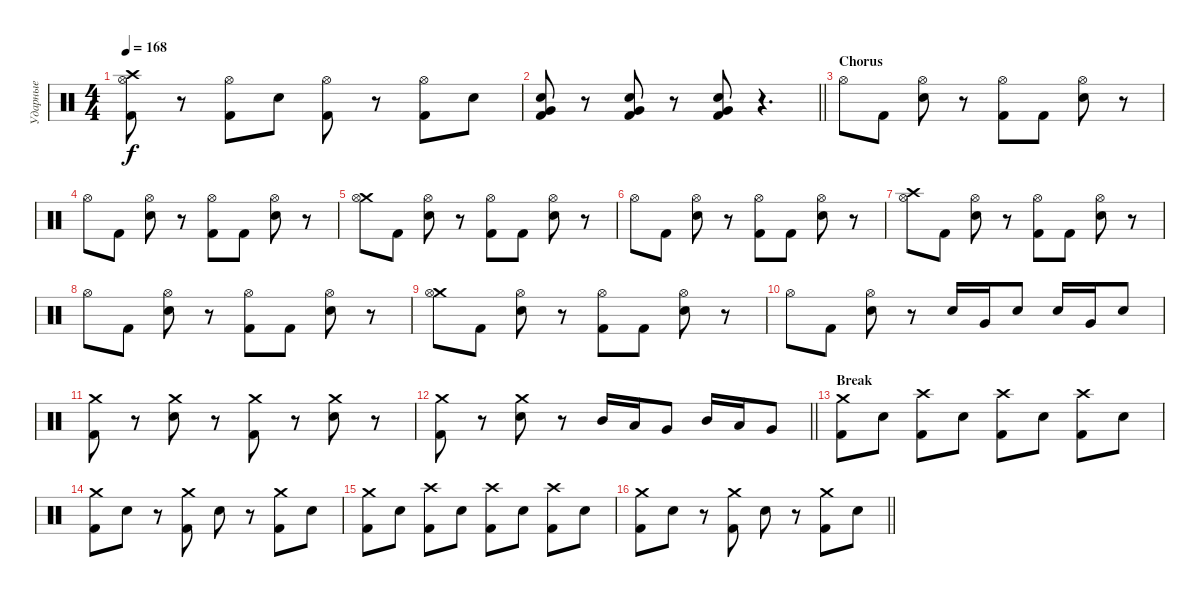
\track ("Ударные" "Ударные") {instrument percussion}
\staff {score}
\articulation defaults
\ts (4 4)
\tempo 168
\clef neutral
\ks c
("Crash high (hit)" "Hi-Hat (open)" "Kick (hit) 2").8{dy f} r.8 ("Hi-Hat (open)" "Kick (hit) 2").8 "Snare (hit) 2".8 ("Hi-Hat (open)" "Kick (hit) 2").8 r.8 ("Hi-Hat (open)" "Kick (hit) 2").8 "Snare (hit) 2".8 |
\barLineRight lightlight
("Very Low Tom (hit)" "Snare (hit) 2" "Kick (hit) 2").8 r.8 ("Very Low Tom (hit)" "Snare (hit) 2" "Kick (hit) 2").8 r.8 ("Very Low Tom (hit)" "Snare (hit) 2" "Kick (hit) 2").8 r.4{d} |
\section ("" "Chorus")
"Hi-Hat (open)".8 "Kick (hit) 2".8 ("Hi-Hat (open)" "Snare (hit) 2").8 r.8 ("Hi-Hat (open)" "Kick (hit) 2").8 "Kick (hit) 2".8 ("Hi-Hat (open)" "Snare (hit) 2").8 r.8 |
"Hi-Hat (open)".8 "Kick (hit) 2".8 ("Hi-Hat (open)" "Snare (hit) 2").8 r.8 ("Hi-Hat (open)" "Kick (hit) 2").8 "Kick (hit) 2".8 ("Hi-Hat (open)" "Snare (hit) 2").8 r.8 |
("Crash medium (hit)" "Hi-Hat (open)").8 "Kick (hit) 2".8 ("Hi-Hat (open)" "Snare (hit) 2").8 r.8 ("Hi-Hat (open)" "Kick (hit) 2").8 "Kick (hit) 2".8 ("Hi-Hat (open)" "Snare (hit) 2").8 r.8 |
"Hi-Hat (open)".8 "Kick (hit) 2".8 ("Hi-Hat (open)" "Snare (hit) 2").8 r.8 ("Hi-Hat (open)" "Kick (hit) 2").8 "Kick (hit) 2".8 ("Hi-Hat (open)" "Snare (hit) 2").8 r.8 |
("Crash high (hit)" "Hi-Hat (open)").8 "Kick (hit) 2".8 ("Hi-Hat (open)" "Snare (hit) 2").8 r.8 ("Hi-Hat (open)" "Kick (hit) 2").8 "Kick (hit) 2".8 ("Hi-Hat (open)" "Snare (hit) 2").8 r.8 |
"Hi-Hat (open)".8 "Kick (hit) 2".8 ("Hi-Hat (open)" "Snare (hit) 2").8 r.8 ("Hi-Hat (open)" "Kick (hit) 2").8 "Kick (hit) 2".8 ("Hi-Hat (open)" "Snare (hit) 2").8 r.8 |
("Crash medium (hit)" "Hi-Hat (open)").8 "Kick (hit) 2".8 ("Hi-Hat (open)" "Snare (hit) 2").8 r.8 ("Hi-Hat (open)" "Kick (hit) 2").8 "Kick (hit) 2".8 ("Hi-Hat (open)" "Snare (hit) 2").8 r.8 |
"Hi-Hat (open)".8 "Kick (hit) 2".8 ("Hi-Hat (open)" "Snare (hit) 2").8 r.8 "Snare (hit) 2".16 "Very Low Tom (hit)".16 "Snare (hit) 2".8 "Snare (hit) 2".16 "Very Low Tom (hit)".16 "Snare (hit) 2".8 |
("Crash medium (hit)" "Kick (hit) 2").8 r.8 ("Crash medium (hit)" "Snare (hit) 2").8 r.8 ("Crash medium (hit)" "Kick (hit) 2").8 r.8 ("Crash medium (hit)" "Snare (hit) 2").8 r.8 |
\barLineRight lightlight
("Crash medium (hit)" "Kick (hit) 2").8 r.8 ("Crash medium (hit)" "Snare (hit) 2").8 r.8 "Mid Tom (hit)".16 "Low Tom (hit)".16 "Very Low Tom (hit)".8 "Mid Tom (hit)".16 "Low Tom (hit)".16 "Very Low Tom (hit)".8 |
\section ("" "Break")
("Crash medium (hit)" "Kick (hit) 2").8 "Snare (hit) 2".8 ("Crash high (hit)" "Kick (hit) 2").8 "Snare (hit) 2".8 ("Crash high (hit)" "Kick (hit) 2").8 "Snare (hit) 2".8 ("Crash high (hit)" "Kick (hit) 2").8 "Snare (hit) 2".8 |
("Crash medium (hit)" "Kick (hit) 2").8 "Snare (hit) 2".8 r.8 ("Crash medium (hit)" "Kick (hit) 2").8 "Snare (hit) 2".8 r.8 ("Crash medium (hit)" "Kick (hit) 2").8 "Snare (hit) 2".8 |
("Crash medium (hit)" "Kick (hit) 2").8 "Snare (hit) 2".8 ("Crash high (hit)" "Kick (hit) 2").8 "Snare (hit) 2".8 ("Crash high (hit)" "Kick (hit) 2").8 "Snare (hit) 2".8 ("Crash high (hit)" "Kick (hit) 2").8 "Snare (hit) 2".8 |
\barLineRight lightlight
("Crash medium (hit)" "Kick (hit) 2").8 "Snare (hit) 2".8 r.8 ("Crash medium (hit)" "Kick (hit) 2").8 "Snare (hit) 2".8 r.8 ("Crash medium (hit)" "Kick (hit) 2").8 "Snare (hit) 2".8
